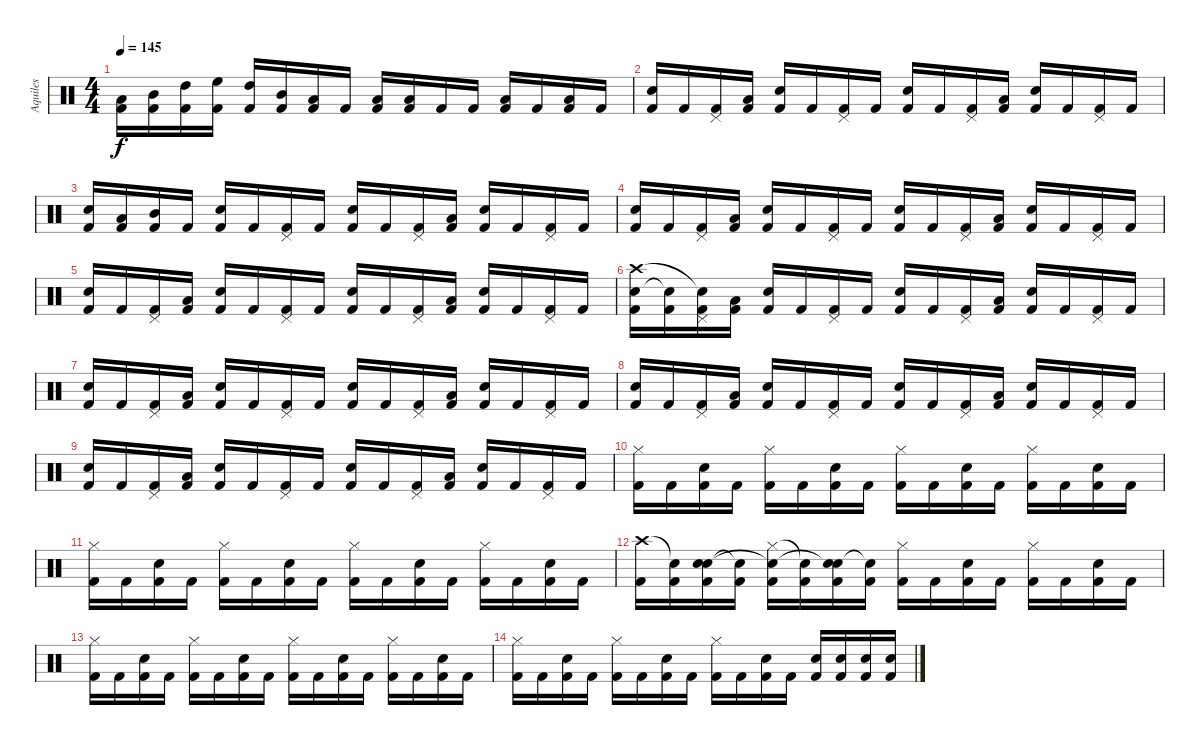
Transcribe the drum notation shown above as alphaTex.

\track ("Aquiles" "Aquiles") {instrument percussion}
\staff {score}
\articulation defaults
\ts (4 4)
\tempo 145
\clef neutral
\ks c
("Kick (hit) 2" "Low Tom (hit)").16{dy f} ("Kick (hit) 2" "Mid Tom (hit)").16 ("Kick (hit) 2" "High Tom (hit)").16 ("Kick (hit) 2" "High Floor Tom (hit)").16 ("Kick (hit) 2" "High Tom (hit)").16 ("Kick (hit) 2" "Mid Tom (hit)").16 ("Kick (hit) 2" "Low Tom (hit)").16 "Kick (hit) 2".16 ("Kick (hit) 2" "Low Tom (hit)").16 ("Kick (hit) 2" "Low Floor Tom (hit)").16 "Kick (hit) 2".16 "Kick (hit) 2".16 ("Kick (hit) 2" "Low Floor Tom (hit)").16 "Kick (hit) 2".16 ("Kick (hit) 2" "Low Floor Tom (hit)").16 "Kick (hit) 2".16 |
("Kick (hit) 2" "Electric Snare (hit)").16 "Kick (hit) 2".16 ("Kick (hit) 2" "Pedal Hi-Hat (hit)").16 ("Kick (hit) 2" "Low Tom (hit)").16 ("Kick (hit) 2" "Electric Snare (hit)").16 "Kick (hit) 2".16 ("Kick (hit) 2" "Pedal Hi-Hat (hit)").16 "Kick (hit) 2".16 ("Kick (hit) 2" "Electric Snare (hit)").16 "Kick (hit) 2".16 ("Kick (hit) 2" "Pedal Hi-Hat (hit)").16 ("Kick (hit) 2" "Low Tom (hit)").16 ("Kick (hit) 2" "Electric Snare (hit)").16 "Kick (hit) 2".16 ("Kick (hit) 2" "Pedal Hi-Hat (hit)").16 "Kick (hit) 2".16 |
("Kick (hit) 2" "Electric Snare (hit)").16 ("Kick (hit) 2" "Low Tom (hit)").16 ("Kick (hit) 2" "Mid Tom (hit)").16 "Kick (hit) 2".16 ("Kick (hit) 2" "Electric Snare (hit)").16 "Kick (hit) 2".16 ("Kick (hit) 2" "Pedal Hi-Hat (hit)").16 "Kick (hit) 2".16 ("Kick (hit) 2" "Electric Snare (hit)").16 "Kick (hit) 2".16 ("Kick (hit) 2" "Pedal Hi-Hat (hit)").16 ("Kick (hit) 2" "Low Tom (hit)").16 ("Kick (hit) 2" "Electric Snare (hit)").16 "Kick (hit) 2".16 ("Kick (hit) 2" "Pedal Hi-Hat (hit)").16 "Kick (hit) 2".16 |
("Kick (hit) 2" "Electric Snare (hit)").16 "Kick (hit) 2".16 ("Kick (hit) 2" "Pedal Hi-Hat (hit)").16 ("Kick (hit) 2" "Low Tom (hit)").16 ("Kick (hit) 2" "Electric Snare (hit)").16 "Kick (hit) 2".16 ("Kick (hit) 2" "Pedal Hi-Hat (hit)").16 "Kick (hit) 2".16 ("Kick (hit) 2" "Electric Snare (hit)").16 "Kick (hit) 2".16 ("Kick (hit) 2" "Pedal Hi-Hat (hit)").16 ("Kick (hit) 2" "Low Tom (hit)").16 ("Kick (hit) 2" "Electric Snare (hit)").16 "Kick (hit) 2".16 ("Kick (hit) 2" "Pedal Hi-Hat (hit)").16 "Kick (hit) 2".16 |
("Kick (hit) 2" "Electric Snare (hit)").16 "Kick (hit) 2".16 ("Kick (hit) 2" "Pedal Hi-Hat (hit)").16 ("Kick (hit) 2" "Low Tom (hit)").16 ("Kick (hit) 2" "Electric Snare (hit)").16 "Kick (hit) 2".16 ("Kick (hit) 2" "Pedal Hi-Hat (hit)").16 "Kick (hit) 2".16 ("Kick (hit) 2" "Electric Snare (hit)").16 "Kick (hit) 2".16 ("Kick (hit) 2" "Pedal Hi-Hat (hit)").16 ("Kick (hit) 2" "Low Tom (hit)").16 ("Kick (hit) 2" "Electric Snare (hit)").16 "Kick (hit) 2".16 ("Kick (hit) 2" "Pedal Hi-Hat (hit)").16 "Kick (hit) 2".16 |
("Kick (hit) 2" "Electric Snare (hit)" "Crash high (hit)").16 ("Kick (hit) 2" "Snare (hit)"{t}).16 ("Kick (hit) 2" "Pedal Hi-Hat (hit)" "Snare (hit)"{t}).16 ("Kick (hit) 2" "Low Tom (hit)").16 ("Kick (hit) 2" "Electric Snare (hit)").16 "Kick (hit) 2".16 ("Kick (hit) 2" "Pedal Hi-Hat (hit)").16 "Kick (hit) 2".16 ("Kick (hit) 2" "Electric Snare (hit)").16 "Kick (hit) 2".16 ("Kick (hit) 2" "Pedal Hi-Hat (hit)").16 ("Kick (hit) 2" "Low Tom (hit)").16 ("Kick (hit) 2" "Electric Snare (hit)").16 "Kick (hit) 2".16 ("Kick (hit) 2" "Pedal Hi-Hat (hit)").16 "Kick (hit) 2".16 |
("Kick (hit) 2" "Electric Snare (hit)").16 "Kick (hit) 2".16 ("Kick (hit) 2" "Pedal Hi-Hat (hit)").16 ("Kick (hit) 2" "Low Tom (hit)").16 ("Kick (hit) 2" "Electric Snare (hit)").16 "Kick (hit) 2".16 ("Kick (hit) 2" "Pedal Hi-Hat (hit)").16 "Kick (hit) 2".16 ("Kick (hit) 2" "Electric Snare (hit)").16 "Kick (hit) 2".16 ("Kick (hit) 2" "Pedal Hi-Hat (hit)").16 ("Kick (hit) 2" "Low Tom (hit)").16 ("Kick (hit) 2" "Electric Snare (hit)").16 "Kick (hit) 2".16 ("Kick (hit) 2" "Pedal Hi-Hat (hit)").16 "Kick (hit) 2".16 |
("Kick (hit) 2" "Electric Snare (hit)").16 "Kick (hit) 2".16 ("Kick (hit) 2" "Pedal Hi-Hat (hit)").16 ("Kick (hit) 2" "Low Tom (hit)").16 ("Kick (hit) 2" "Electric Snare (hit)").16 "Kick (hit) 2".16 ("Kick (hit) 2" "Pedal Hi-Hat (hit)").16 "Kick (hit) 2".16 ("Kick (hit) 2" "Electric Snare (hit)").16 "Kick (hit) 2".16 ("Kick (hit) 2" "Pedal Hi-Hat (hit)").16 ("Kick (hit) 2" "Low Tom (hit)").16 ("Kick (hit) 2" "Electric Snare (hit)").16 "Kick (hit) 2".16 ("Kick (hit) 2" "Pedal Hi-Hat (hit)").16 "Kick (hit) 2".16 |
("Kick (hit) 2" "Electric Snare (hit)").16 "Kick (hit) 2".16 ("Kick (hit) 2" "Pedal Hi-Hat (hit)").16 ("Kick (hit) 2" "Low Tom (hit)").16 ("Kick (hit) 2" "Electric Snare (hit)").16 "Kick (hit) 2".16 ("Kick (hit) 2" "Pedal Hi-Hat (hit)").16 "Kick (hit) 2".16 ("Kick (hit) 2" "Electric Snare (hit)").16 "Kick (hit) 2".16 ("Kick (hit) 2" "Pedal Hi-Hat (hit)").16 ("Kick (hit) 2" "Low Tom (hit)").16 ("Kick (hit) 2" "Electric Snare (hit)").16 "Kick (hit) 2".16 ("Kick (hit) 2" "Pedal Hi-Hat (hit)").16 "Kick (hit) 2".16 |
("Kick (hit) 2" "Hi-Hat (closed)").16 "Kick (hit) 2".16 ("Kick (hit) 2" "Electric Snare (hit)").16 "Kick (hit) 2".16 ("Kick (hit) 2" "Hi-Hat (closed)").16 "Kick (hit) 2".16 ("Kick (hit) 2" "Electric Snare (hit)").16 "Kick (hit) 2".16 ("Kick (hit) 2" "Hi-Hat (closed)").16 "Kick (hit) 2".16 ("Kick (hit) 2" "Electric Snare (hit)").16 "Kick (hit) 2".16 ("Kick (hit) 2" "Hi-Hat (closed)").16 "Kick (hit) 2".16 ("Kick (hit) 2" "Electric Snare (hit)").16 "Kick (hit) 2".16 |
("Kick (hit) 2" "Hi-Hat (closed)").16 "Kick (hit) 2".16 ("Kick (hit) 2" "Electric Snare (hit)").16 "Kick (hit) 2".16 ("Kick (hit) 2" "Hi-Hat (closed)").16 "Kick (hit) 2".16 ("Kick (hit) 2" "Electric Snare (hit)").16 "Kick (hit) 2".16 ("Kick (hit) 2" "Hi-Hat (closed)").16 "Kick (hit) 2".16 ("Kick (hit) 2" "Electric Snare (hit)").16 "Kick (hit) 2".16 ("Kick (hit) 2" "Hi-Hat (closed)").16 "Kick (hit) 2".16 ("Kick (hit) 2" "Electric Snare (hit)").16 "Kick (hit) 2".16 |
("Kick (hit) 2" "Crash high (hit)").16 ("Kick (hit) 2" "Snare (hit)"{t}).16 ("Kick (hit) 2" "Electric Snare (hit)" "Snare (hit)").16 ("Kick (hit) 2" "Snare (hit)"{t}).16 ("Kick (hit) 2" "Hi-Hat (closed)" "Snare (hit)"{t}).16 ("Kick (hit) 2" "Snare (hit)"{t}).16 ("Kick (hit) 2" "Electric Snare (hit)" "Snare (hit)"{t}).16 ("Kick (hit) 2" "Snare (hit)"{t}).16 ("Kick (hit) 2" "Hi-Hat (closed)").16 "Kick (hit) 2".16 ("Kick (hit) 2" "Electric Snare (hit)").16 "Kick (hit) 2".16 ("Kick (hit) 2" "Hi-Hat (closed)").16 "Kick (hit) 2".16 ("Kick (hit) 2" "Electric Snare (hit)").16 "Kick (hit) 2".16 |
("Kick (hit) 2" "Hi-Hat (closed)").16 "Kick (hit) 2".16 ("Kick (hit) 2" "Electric Snare (hit)").16 "Kick (hit) 2".16 ("Kick (hit) 2" "Hi-Hat (closed)").16 "Kick (hit) 2".16 ("Kick (hit) 2" "Electric Snare (hit)").16 "Kick (hit) 2".16 ("Kick (hit) 2" "Hi-Hat (closed)").16 "Kick (hit) 2".16 ("Kick (hit) 2" "Electric Snare (hit)").16 "Kick (hit) 2".16 ("Kick (hit) 2" "Hi-Hat (closed)").16 "Kick (hit) 2".16 ("Kick (hit) 2" "Electric Snare (hit)").16 "Kick (hit) 2".16 |
("Kick (hit) 2" "Hi-Hat (closed)").16 "Kick (hit) 2".16 ("Kick (hit) 2" "Electric Snare (hit)").16 "Kick (hit) 2".16 ("Kick (hit) 2" "Hi-Hat (closed)").16 "Kick (hit) 2".16 ("Kick (hit) 2" "Electric Snare (hit)").16 "Kick (hit) 2".16 ("Kick (hit) 2" "Hi-Hat (closed)").16 "Kick (hit) 2".16 ("Kick (hit) 2" "Electric Snare (hit)").16 "Kick (hit) 2".16 ("Kick (hit) 2" "Electric Snare (hit)").16 ("Kick (hit) 2" "Electric Snare (hit)").16 ("Kick (hit) 2" "Electric Snare (hit)").16 ("Kick (hit) 2" "Electric Snare (hit)").16
